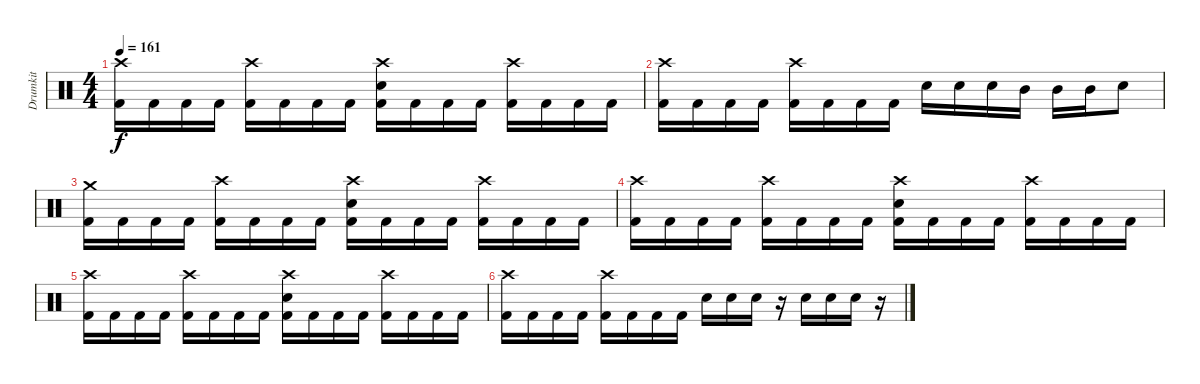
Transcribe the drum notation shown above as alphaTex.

\track ("Drumkit" "Drumkit") {instrument percussion}
\staff {score}
\articulation defaults
\ts (4 4)
\tempo 161
\clef neutral
\ks c
("Crash high (hit)" "Kick (hit) 2").16{dy f} "Kick (hit) 2".16 "Kick (hit) 2".16 "Kick (hit) 2".16 ("Crash high (hit)" "Kick (hit) 2").16 "Kick (hit) 2".16 "Kick (hit) 2".16 "Kick (hit) 2".16 ("Crash high (hit)" "Snare (hit) 2" "Kick (hit) 2").16 "Kick (hit) 2".16 "Kick (hit) 2".16 "Kick (hit) 2".16 ("Crash high (hit)" "Kick (hit) 2").16 "Kick (hit) 2".16 "Kick (hit) 2".16 "Kick (hit) 2".16 |
("Crash high (hit)" "Kick (hit) 2").16 "Kick (hit) 2".16 "Kick (hit) 2".16 "Kick (hit) 2".16 ("Crash high (hit)" "Kick (hit) 2").16 "Kick (hit) 2".16 "Kick (hit) 2".16 "Kick (hit) 2".16 "Snare (hit) 2".16 "Snare (hit) 2".16 "Snare (hit) 2".16 "Mid Tom (hit)".16 "Mid Tom (hit)".16 "Mid Tom (hit)".16 "Snare (hit) 2".8 |
("Crash medium (hit)" "Kick (hit) 2").16 "Kick (hit) 2".16 "Kick (hit) 2".16 "Kick (hit) 2".16 ("Crash high (hit)" "Kick (hit) 2").16 "Kick (hit) 2".16 "Kick (hit) 2".16 "Kick (hit) 2".16 ("Crash high (hit)" "Snare (hit) 2" "Kick (hit) 2").16 "Kick (hit) 2".16 "Kick (hit) 2".16 "Kick (hit) 2".16 ("Crash high (hit)" "Kick (hit) 2").16 "Kick (hit) 2".16 "Kick (hit) 2".16 "Kick (hit) 2".16 |
("Crash high (hit)" "Kick (hit) 2").16 "Kick (hit) 2".16 "Kick (hit) 2".16 "Kick (hit) 2".16 ("Crash high (hit)" "Kick (hit) 2").16 "Kick (hit) 2".16 "Kick (hit) 2".16 "Kick (hit) 2".16 ("Crash high (hit)" "Snare (hit) 2" "Kick (hit) 2").16 "Kick (hit) 2".16 "Kick (hit) 2".16 "Kick (hit) 2".16 ("Crash high (hit)" "Kick (hit) 2").16 "Kick (hit) 2".16 "Kick (hit) 2".16 "Kick (hit) 2".16 |
("Crash high (hit)" "Kick (hit) 2").16 "Kick (hit) 2".16 "Kick (hit) 2".16 "Kick (hit) 2".16 ("Crash high (hit)" "Kick (hit) 2").16 "Kick (hit) 2".16 "Kick (hit) 2".16 "Kick (hit) 2".16 ("Crash high (hit)" "Snare (hit) 2" "Kick (hit) 2").16 "Kick (hit) 2".16 "Kick (hit) 2".16 "Kick (hit) 2".16 ("Crash high (hit)" "Kick (hit) 2").16 "Kick (hit) 2".16 "Kick (hit) 2".16 "Kick (hit) 2".16 |
("Crash high (hit)" "Kick (hit) 2").16 "Kick (hit) 2".16 "Kick (hit) 2".16 "Kick (hit) 2".16 ("Crash high (hit)" "Kick (hit) 2").16 "Kick (hit) 2".16 "Kick (hit) 2".16 "Kick (hit) 2".16 "Snare (hit) 2".16 "Snare (hit) 2".16 "Snare (hit) 2".16 r.16 "Snare (hit) 2".16 "Snare (hit) 2".16 "Snare (hit) 2".16 r.16
